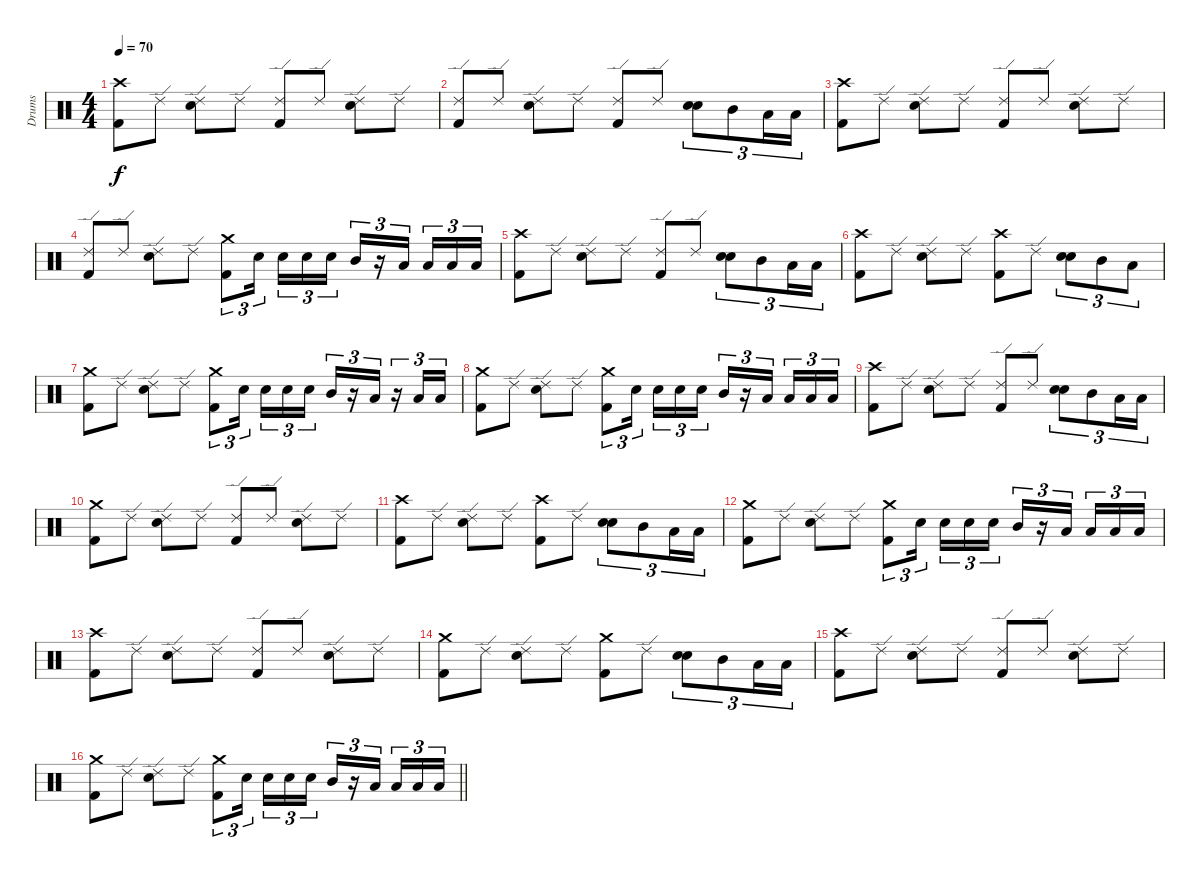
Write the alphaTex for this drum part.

\track ("Drums" "Drums") {instrument percussion}
\staff {score}
\articulation defaults
\ts (4 4)
\tempo 70
\clef neutral
\ks c
("Crash high (hit)" "Kick (hit) 2").8{dy f} "Ride (edge) 2".8 ("Ride (edge) 2" "Electric Snare (hit)").8 "Ride (edge) 2".8 ("Ride (edge) 2" "Kick (hit) 2").8 "Ride (edge) 2".8 ("Ride (edge) 2" "Electric Snare (hit)").8 "Ride (edge) 2".8 |
("Ride (edge) 2" "Kick (hit) 2").8 "Ride (edge) 2".8 ("Ride (edge) 2" "Electric Snare (hit)").8 "Ride (edge) 2".8 ("Ride (edge) 2" "Kick (hit) 2").8 "Ride (edge) 2".8 ("Electric Snare (hit)" "Electric Snare (hit)").8{tu (3 2) bu 60} "Mid Tom (hit)".8{tu (3 2)} "Low Tom (hit)".16{tu (3 2)} "Low Tom (hit)".16{tu (3 2)} |
("Crash high (hit)" "Kick (hit) 2").8 "Ride (edge) 2".8 ("Ride (edge) 2" "Electric Snare (hit)").8 "Ride (edge) 2".8 ("Ride (edge) 2" "Kick (hit) 2").8 "Ride (edge) 2".8 ("Ride (edge) 2" "Electric Snare (hit)").8 "Ride (edge) 2".8 |
("Ride (edge) 2" "Kick (hit) 2").8 "Ride (edge) 2".8 ("Ride (edge) 2" "Electric Snare (hit)").8 "Ride (edge) 2".8 ("Crash medium (hit)" "Kick (hit) 2").8{tu (3 2)} "Electric Snare (hit)".16{tu (3 2) beam splitsecondary} "Electric Snare (hit)".16{tu (3 2)} "Electric Snare (hit)".16{tu (3 2)} "Electric Snare (hit)".16{tu (3 2)} "Mid Tom (hit)".16{tu (3 2)} r.16{tu (3 2)} "Low Tom (hit)".16{tu (3 2) beam splitsecondary} "Low Tom (hit)".16{tu (3 2)} "Low Tom (hit)".16{tu (3 2)} "Low Tom (hit)".16{tu (3 2)} |
("Crash high (hit)" "Kick (hit) 2").8 "Ride (edge) 2".8 ("Ride (edge) 2" "Electric Snare (hit)").8 "Ride (edge) 2".8 ("Ride (edge) 2" "Kick (hit) 2").8 "Ride (edge) 2".8 ("Electric Snare (hit)" "Electric Snare (hit)").8{tu (3 2) bu 60} "Mid Tom (hit)".8{tu (3 2)} "Low Tom (hit)".16{tu (3 2)} "Low Tom (hit)".16{tu (3 2)} |
("Crash high (hit)" "Kick (hit) 2").8 "Ride (edge) 2".8 ("Ride (edge) 2" "Electric Snare (hit)").8 "Ride (edge) 2".8 ("Crash high (hit)" "Kick (hit) 2").8 "Ride (edge) 2".8 ("Electric Snare (hit)" "Electric Snare (hit)").8{tu (3 2) bu 60} "Mid Tom (hit)".8{tu (3 2)} "Low Tom (hit)".8{tu (3 2)} |
("Crash medium (hit)" "Kick (hit) 2").8 "Ride (edge) 2".8 ("Ride (edge) 2" "Electric Snare (hit)").8 "Ride (edge) 2".8 ("Crash medium (hit)" "Kick (hit) 2").8{tu (3 2)} "Electric Snare (hit)".16{tu (3 2) beam splitsecondary} "Electric Snare (hit)".16{tu (3 2)} "Electric Snare (hit)".16{tu (3 2)} "Electric Snare (hit)".16{tu (3 2)} "Mid Tom (hit)".16{tu (3 2)} r.16{tu (3 2)} "Low Tom (hit)".16{tu (3 2)} r.16{tu (3 2)} "Low Tom (hit)".16{tu (3 2)} "Low Tom (hit)".16{tu (3 2)} |
("Crash medium (hit)" "Kick (hit) 2").8 "Ride (edge) 2".8 ("Ride (edge) 2" "Electric Snare (hit)").8 "Ride (edge) 2".8 ("Crash medium (hit)" "Kick (hit) 2").8{tu (3 2)} "Electric Snare (hit)".16{tu (3 2) beam splitsecondary} "Electric Snare (hit)".16{tu (3 2)} "Electric Snare (hit)".16{tu (3 2)} "Electric Snare (hit)".16{tu (3 2)} "Mid Tom (hit)".16{tu (3 2)} r.16{tu (3 2)} "Low Tom (hit)".16{tu (3 2) beam splitsecondary} "Low Tom (hit)".16{tu (3 2)} "Low Tom (hit)".16{tu (3 2)} "Low Tom (hit)".16{tu (3 2)} |
("Crash high (hit)" "Kick (hit) 2").8 "Ride (edge) 2".8 ("Ride (edge) 2" "Electric Snare (hit)").8 "Ride (edge) 2".8 ("Ride (edge) 2" "Kick (hit) 2").8 "Ride (edge) 2".8 ("Electric Snare (hit)" "Electric Snare (hit)").8{tu (3 2) bu 60} "Mid Tom (hit)".8{tu (3 2)} "Low Tom (hit)".16{tu (3 2)} "Low Tom (hit)".16{tu (3 2)} |
("Crash medium (hit)" "Kick (hit) 2").8 "Ride (edge) 2".8 ("Ride (edge) 2" "Electric Snare (hit)").8 "Ride (edge) 2".8 ("Ride (edge) 2" "Kick (hit) 2").8 "Ride (edge) 2".8 ("Ride (edge) 2" "Electric Snare (hit)").8 "Ride (edge) 2".8 |
("Crash high (hit)" "Kick (hit) 2").8 "Ride (edge) 2".8 ("Ride (edge) 2" "Electric Snare (hit)").8 "Ride (edge) 2".8 ("Crash high (hit)" "Kick (hit) 2").8 "Ride (edge) 2".8 ("Electric Snare (hit)" "Electric Snare (hit)").8{tu (3 2) bu 60} "Mid Tom (hit)".8{tu (3 2)} "Low Tom (hit)".16{tu (3 2)} "Low Tom (hit)".16{tu (3 2)} |
("Crash medium (hit)" "Kick (hit) 2").8 "Ride (edge) 2".8 ("Ride (edge) 2" "Electric Snare (hit)").8 "Ride (edge) 2".8 ("Crash medium (hit)" "Kick (hit) 2").8{tu (3 2)} "Electric Snare (hit)".16{tu (3 2) beam splitsecondary} "Electric Snare (hit)".16{tu (3 2)} "Electric Snare (hit)".16{tu (3 2)} "Electric Snare (hit)".16{tu (3 2)} "Mid Tom (hit)".16{tu (3 2)} r.16{tu (3 2)} "Low Tom (hit)".16{tu (3 2) beam splitsecondary} "Low Tom (hit)".16{tu (3 2)} "Low Tom (hit)".16{tu (3 2)} "Low Tom (hit)".16{tu (3 2)} |
("Crash high (hit)" "Kick (hit) 2").8 "Ride (edge) 2".8 ("Ride (edge) 2" "Electric Snare (hit)").8 "Ride (edge) 2".8 ("Ride (edge) 2" "Kick (hit) 2").8 "Ride (edge) 2".8 ("Ride (edge) 2" "Electric Snare (hit)").8 "Ride (edge) 2".8 |
("Crash medium (hit)" "Kick (hit) 2").8 "Ride (edge) 2".8 ("Ride (edge) 2" "Electric Snare (hit)").8 "Ride (edge) 2".8 ("Crash medium (hit)" "Kick (hit) 2").8 "Ride (edge) 2".8 ("Electric Snare (hit)" "Electric Snare (hit)").8{tu (3 2) bu 60} "Mid Tom (hit)".8{tu (3 2)} "Low Tom (hit)".16{tu (3 2)} "Low Tom (hit)".16{tu (3 2)} |
("Crash high (hit)" "Kick (hit) 2").8 "Ride (edge) 2".8 ("Ride (edge) 2" "Electric Snare (hit)").8 "Ride (edge) 2".8 ("Ride (edge) 2" "Kick (hit) 2").8 "Ride (edge) 2".8 ("Ride (edge) 2" "Electric Snare (hit)").8 "Ride (edge) 2".8 |
\barLineRight lightlight
("Crash medium (hit)" "Kick (hit) 2").8 "Ride (edge) 2".8 ("Ride (edge) 2" "Electric Snare (hit)").8 "Ride (edge) 2".8 ("Crash medium (hit)" "Kick (hit) 2").8{tu (3 2)} "Electric Snare (hit)".16{tu (3 2) beam splitsecondary} "Electric Snare (hit)".16{tu (3 2)} "Electric Snare (hit)".16{tu (3 2)} "Electric Snare (hit)".16{tu (3 2)} "Mid Tom (hit)".16{tu (3 2)} r.16{tu (3 2)} "Low Tom (hit)".16{tu (3 2) beam splitsecondary} "Low Tom (hit)".16{tu (3 2)} "Low Tom (hit)".16{tu (3 2)} "Low Tom (hit)".16{tu (3 2)}
